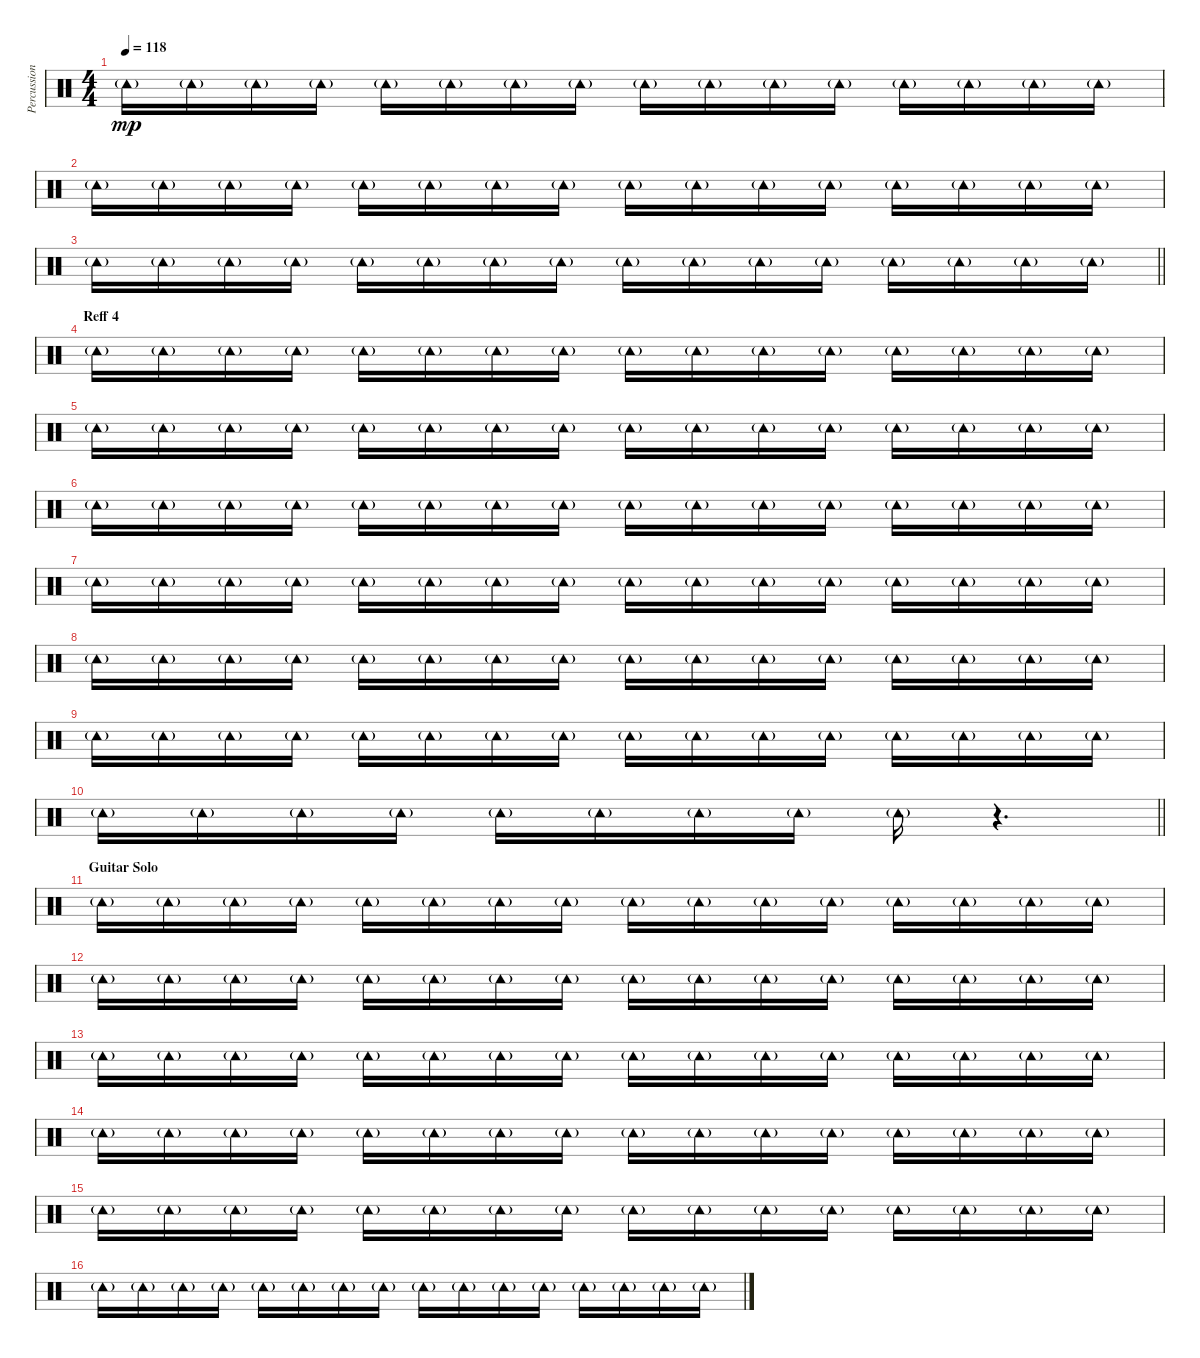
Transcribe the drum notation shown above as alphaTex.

\track ("Percussion 2" "Percussion") {instrument percussion}
\staff {score}
\articulation defaults
\ts (4 4)
\tempo 118
\clef neutral
\ks c "Tambourine (hit)"{g}.16{dy mp} "Tambourine (hit)"{g}.16 "Tambourine (hit)"{g}.16 "Tambourine (hit)"{g}.16 "Tambourine (hit)"{g}.16 "Tambourine (hit)"{g}.16 "Tambourine (hit)"{g}.16 "Tambourine (hit)"{g}.16 "Tambourine (hit)"{g}.16 "Tambourine (hit)"{g}.16 "Tambourine (hit)"{g}.16 "Tambourine (hit)"{g}.16 "Tambourine (hit)"{g}.16 "Tambourine (hit)"{g}.16 "Tambourine (hit)"{g}.16 "Tambourine (hit)"{g}.16
|
"Tambourine (hit)"{g}.16 "Tambourine (hit)"{g}.16 "Tambourine (hit)"{g}.16 "Tambourine (hit)"{g}.16 "Tambourine (hit)"{g}.16 "Tambourine (hit)"{g}.16 "Tambourine (hit)"{g}.16 "Tambourine (hit)"{g}.16 "Tambourine (hit)"{g}.16 "Tambourine (hit)"{g}.16 "Tambourine (hit)"{g}.16 "Tambourine (hit)"{g}.16 "Tambourine (hit)"{g}.16 "Tambourine (hit)"{g}.16 "Tambourine (hit)"{g}.16 "Tambourine (hit)"{g}.16 |
\barLineRight lightlight "Tambourine (hit)"{g}.16 "Tambourine (hit)"{g}.16 "Tambourine (hit)"{g}.16 "Tambourine (hit)"{g}.16 "Tambourine (hit)"{g}.16 "Tambourine (hit)"{g}.16 "Tambourine (hit)"{g}.16 "Tambourine (hit)"{g}.16 "Tambourine (hit)"{g}.16 "Tambourine (hit)"{g}.16 "Tambourine (hit)"{g}.16 "Tambourine (hit)"{g}.16 "Tambourine (hit)"{g}.16 "Tambourine (hit)"{g}.16 "Tambourine (hit)"{g}.16 "Tambourine (hit)"{g}.16
|
\section ("" "Reff 4")
"Tambourine (hit)"{g}.16 "Tambourine (hit)"{g}.16 "Tambourine (hit)"{g}.16 "Tambourine (hit)"{g}.16 "Tambourine (hit)"{g}.16 "Tambourine (hit)"{g}.16 "Tambourine (hit)"{g}.16 "Tambourine (hit)"{g}.16 "Tambourine (hit)"{g}.16 "Tambourine (hit)"{g}.16 "Tambourine (hit)"{g}.16 "Tambourine (hit)"{g}.16 "Tambourine (hit)"{g}.16 "Tambourine (hit)"{g}.16 "Tambourine (hit)"{g}.16 "Tambourine (hit)"{g}.16 |
"Tambourine (hit)"{g}.16 "Tambourine (hit)"{g}.16 "Tambourine (hit)"{g}.16 "Tambourine (hit)"{g}.16 "Tambourine (hit)"{g}.16 "Tambourine (hit)"{g}.16 "Tambourine (hit)"{g}.16 "Tambourine (hit)"{g}.16 "Tambourine (hit)"{g}.16 "Tambourine (hit)"{g}.16 "Tambourine (hit)"{g}.16 "Tambourine (hit)"{g}.16 "Tambourine (hit)"{g}.16 "Tambourine (hit)"{g}.16 "Tambourine (hit)"{g}.16 "Tambourine (hit)"{g}.16 |
"Tambourine (hit)"{g}.16 "Tambourine (hit)"{g}.16 "Tambourine (hit)"{g}.16 "Tambourine (hit)"{g}.16 "Tambourine (hit)"{g}.16 "Tambourine (hit)"{g}.16 "Tambourine (hit)"{g}.16 "Tambourine (hit)"{g}.16 "Tambourine (hit)"{g}.16 "Tambourine (hit)"{g}.16 "Tambourine (hit)"{g}.16 "Tambourine (hit)"{g}.16 "Tambourine (hit)"{g}.16 "Tambourine (hit)"{g}.16 "Tambourine (hit)"{g}.16 "Tambourine (hit)"{g}.16 |
"Tambourine (hit)"{g}.16 "Tambourine (hit)"{g}.16 "Tambourine (hit)"{g}.16 "Tambourine (hit)"{g}.16 "Tambourine (hit)"{g}.16 "Tambourine (hit)"{g}.16 "Tambourine (hit)"{g}.16 "Tambourine (hit)"{g}.16 "Tambourine (hit)"{g}.16 "Tambourine (hit)"{g}.16 "Tambourine (hit)"{g}.16 "Tambourine (hit)"{g}.16 "Tambourine (hit)"{g}.16 "Tambourine (hit)"{g}.16 "Tambourine (hit)"{g}.16 "Tambourine (hit)"{g}.16 |
"Tambourine (hit)"{g}.16 "Tambourine (hit)"{g}.16 "Tambourine (hit)"{g}.16 "Tambourine (hit)"{g}.16 "Tambourine (hit)"{g}.16 "Tambourine (hit)"{g}.16 "Tambourine (hit)"{g}.16 "Tambourine (hit)"{g}.16 "Tambourine (hit)"{g}.16 "Tambourine (hit)"{g}.16 "Tambourine (hit)"{g}.16 "Tambourine (hit)"{g}.16 "Tambourine (hit)"{g}.16 "Tambourine (hit)"{g}.16 "Tambourine (hit)"{g}.16 "Tambourine (hit)"{g}.16 |
"Tambourine (hit)"{g}.16 "Tambourine (hit)"{g}.16 "Tambourine (hit)"{g}.16 "Tambourine (hit)"{g}.16 "Tambourine (hit)"{g}.16 "Tambourine (hit)"{g}.16 "Tambourine (hit)"{g}.16 "Tambourine (hit)"{g}.16 "Tambourine (hit)"{g}.16 "Tambourine (hit)"{g}.16 "Tambourine (hit)"{g}.16 "Tambourine (hit)"{g}.16 "Tambourine (hit)"{g}.16 "Tambourine (hit)"{g}.16 "Tambourine (hit)"{g}.16 "Tambourine (hit)"{g}.16 |
\barLineRight lightlight "Tambourine (hit)"{g}.16 "Tambourine (hit)"{g}.16 "Tambourine (hit)"{g}.16 "Tambourine (hit)"{g}.16 "Tambourine (hit)"{g}.16 "Tambourine (hit)"{g}.16 "Tambourine (hit)"{g}.16 "Tambourine (hit)"{g}.16 "Tambourine (hit)"{g}.16
r.4{d} |
\section ("" "Guitar Solo")
"Tambourine (hit)"{g}.16 "Tambourine (hit)"{g}.16 "Tambourine (hit)"{g}.16 "Tambourine (hit)"{g}.16 "Tambourine (hit)"{g}.16 "Tambourine (hit)"{g}.16 "Tambourine (hit)"{g}.16 "Tambourine (hit)"{g}.16 "Tambourine (hit)"{g}.16 "Tambourine (hit)"{g}.16 "Tambourine (hit)"{g}.16 "Tambourine (hit)"{g}.16 "Tambourine (hit)"{g}.16 "Tambourine (hit)"{g}.16 "Tambourine (hit)"{g}.16 "Tambourine (hit)"{g}.16 |
"Tambourine (hit)"{g}.16 "Tambourine (hit)"{g}.16 "Tambourine (hit)"{g}.16 "Tambourine (hit)"{g}.16 "Tambourine (hit)"{g}.16 "Tambourine (hit)"{g}.16 "Tambourine (hit)"{g}.16 "Tambourine (hit)"{g}.16 "Tambourine (hit)"{g}.16 "Tambourine (hit)"{g}.16 "Tambourine (hit)"{g}.16 "Tambourine (hit)"{g}.16 "Tambourine (hit)"{g}.16 "Tambourine (hit)"{g}.16 "Tambourine (hit)"{g}.16 "Tambourine (hit)"{g}.16 |
"Tambourine (hit)"{g}.16 "Tambourine (hit)"{g}.16 "Tambourine (hit)"{g}.16 "Tambourine (hit)"{g}.16 "Tambourine (hit)"{g}.16 "Tambourine (hit)"{g}.16 "Tambourine (hit)"{g}.16 "Tambourine (hit)"{g}.16 "Tambourine (hit)"{g}.16 "Tambourine (hit)"{g}.16 "Tambourine (hit)"{g}.16 "Tambourine (hit)"{g}.16 "Tambourine (hit)"{g}.16 "Tambourine (hit)"{g}.16 "Tambourine (hit)"{g}.16 "Tambourine (hit)"{g}.16 |
"Tambourine (hit)"{g}.16 "Tambourine (hit)"{g}.16 "Tambourine (hit)"{g}.16 "Tambourine (hit)"{g}.16 "Tambourine (hit)"{g}.16 "Tambourine (hit)"{g}.16 "Tambourine (hit)"{g}.16 "Tambourine (hit)"{g}.16 "Tambourine (hit)"{g}.16 "Tambourine (hit)"{g}.16 "Tambourine (hit)"{g}.16 "Tambourine (hit)"{g}.16 "Tambourine (hit)"{g}.16 "Tambourine (hit)"{g}.16 "Tambourine (hit)"{g}.16 "Tambourine (hit)"{g}.16 |
"Tambourine (hit)"{g}.16 "Tambourine (hit)"{g}.16 "Tambourine (hit)"{g}.16 "Tambourine (hit)"{g}.16 "Tambourine (hit)"{g}.16 "Tambourine (hit)"{g}.16 "Tambourine (hit)"{g}.16 "Tambourine (hit)"{g}.16 "Tambourine (hit)"{g}.16 "Tambourine (hit)"{g}.16 "Tambourine (hit)"{g}.16 "Tambourine (hit)"{g}.16 "Tambourine (hit)"{g}.16 "Tambourine (hit)"{g}.16 "Tambourine (hit)"{g}.16 "Tambourine (hit)"{g}.16 |
"Tambourine (hit)"{g}.16 "Tambourine (hit)"{g}.16 "Tambourine (hit)"{g}.16 "Tambourine (hit)"{g}.16 "Tambourine (hit)"{g}.16 "Tambourine (hit)"{g}.16 "Tambourine (hit)"{g}.16 "Tambourine (hit)"{g}.16 "Tambourine (hit)"{g}.16 "Tambourine (hit)"{g}.16 "Tambourine (hit)"{g}.16 "Tambourine (hit)"{g}.16 "Tambourine (hit)"{g}.16 "Tambourine (hit)"{g}.16 "Tambourine (hit)"{g}.16 "Tambourine (hit)"{g}.16
